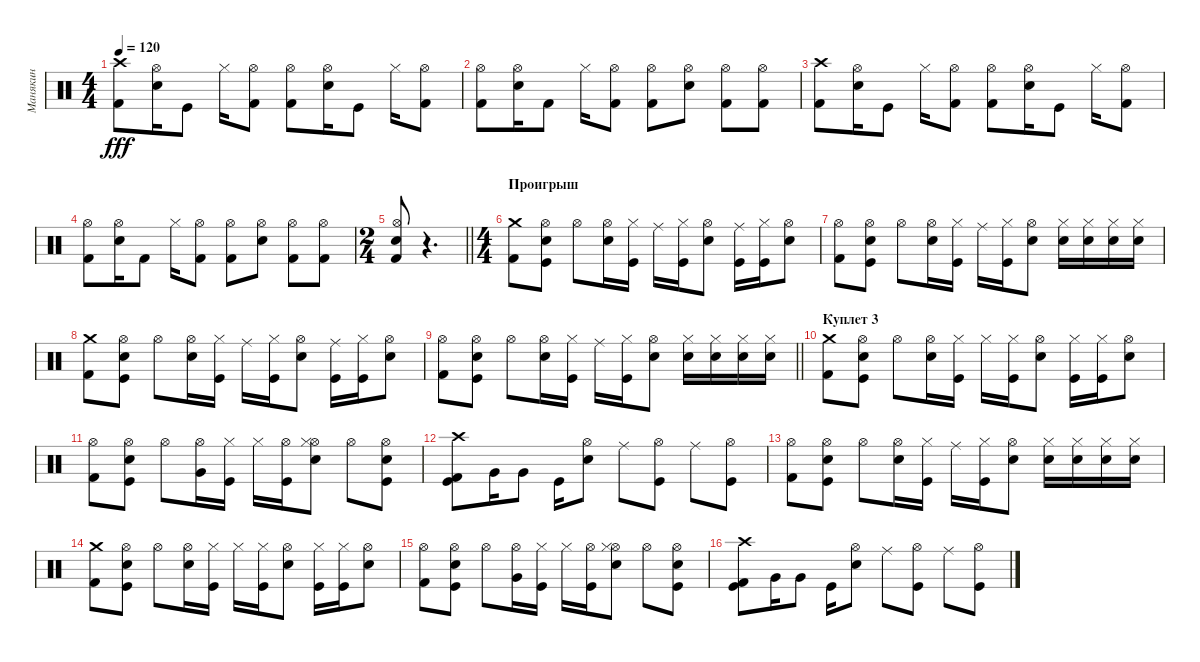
\track ("Манякин" "Манякин") {instrument percussion}
\staff {score}
\articulation defaults
\ts (4 4)
\tempo 120
\clef neutral
\ks c
("Crash high (hit)" "Kick (hit) 2").8{dy fff} ("Hi-Hat (open)" "Snare (hit) 2").16 "Kick (hit)".8 "Hi-Hat (closed)".16 ("Hi-Hat (open)" "Kick (hit) 2").8 ("Hi-Hat (open)" "Kick (hit) 2").8 ("Hi-Hat (open)" "Snare (hit) 2").16 "Kick (hit)".8 "Hi-Hat (closed)".16 ("Kick (hit) 2" "Hi-Hat (open)").8 |
("Hi-Hat (open)" "Kick (hit) 2").8 ("Hi-Hat (open)" "Snare (hit) 2").16 "Kick (hit) 2".8 "Hi-Hat (closed)".16 ("Hi-Hat (open)" "Kick (hit) 2").8 ("Kick (hit) 2" "Hi-Hat (open)").8 ("Hi-Hat (open)" "Snare (hit) 2").8 ("Hi-Hat (open)" "Kick (hit) 2").8 ("Hi-Hat (open)" "Kick (hit) 2").8 |
("Crash high (hit)" "Kick (hit) 2").8 ("Hi-Hat (open)" "Snare (hit) 2").16 "Kick (hit)".8 "Hi-Hat (closed)".16 ("Hi-Hat (open)" "Kick (hit) 2").8 ("Hi-Hat (open)" "Kick (hit) 2").8 ("Hi-Hat (open)" "Snare (hit) 2").16 "Kick (hit)".8 "Hi-Hat (closed)".16 ("Kick (hit) 2" "Hi-Hat (open)").8 |
("Hi-Hat (open)" "Kick (hit) 2").8 ("Hi-Hat (open)" "Snare (hit) 2").16 "Kick (hit) 2".8 "Hi-Hat (closed)".16 ("Hi-Hat (open)" "Kick (hit) 2").8 ("Kick (hit) 2" "Hi-Hat (open)").8 ("Hi-Hat (open)" "Snare (hit) 2").8 ("Hi-Hat (open)" "Kick (hit) 2").8 ("Hi-Hat (open)" "Kick (hit) 2").8 |
\ts (2 4)
\barLineRight lightlight
("Hi-Hat (open)" "Snare (hit) 2" "Kick (hit) 2").8 r.4{d} |
\ts (4 4)
\section ("" "Проигрыш")
("Crash medium (hit)" "Kick (hit) 2").8 ("Hi-Hat (open)" "Kick (hit)" "Snare (hit) 2").8 "Hi-Hat (open)".8 ("Snare (hit) 2" "Hi-Hat (open)").16 ("Kick (hit)" "Hi-Hat (closed)").16 "Ride (middle)".16 ("Kick (hit)" "Hi-Hat (closed)").16 ("Snare (hit) 2" "Hi-Hat (open)").8 ("Kick (hit)" "Ride (middle)").16 ("Kick (hit)" "Hi-Hat (closed)").16 ("Snare (hit) 2" "Hi-Hat (open)").8 |
("Hi-Hat (open)" "Kick (hit) 2").8 ("Hi-Hat (open)" "Snare (hit) 2" "Kick (hit)").8 "Hi-Hat (open)".8 ("Snare (hit) 2" "Hi-Hat (open)").16 ("Hi-Hat (closed)" "Kick (hit)").16 "Ride (middle)".16 ("Hi-Hat (closed)" "Kick (hit)").16 ("Hi-Hat (open)" "Snare (hit) 2").8 ("Hi-Hat (closed)" "Snare (hit) 2").16 ("Hi-Hat (closed)" "Snare (hit) 2").16 ("Hi-Hat (closed)" "Snare (hit) 2").16 ("Hi-Hat (closed)" "Snare (hit) 2").16 |
("Crash medium (hit)" "Kick (hit) 2").8 ("Hi-Hat (open)" "Kick (hit)" "Snare (hit) 2").8 "Hi-Hat (open)".8 ("Snare (hit) 2" "Hi-Hat (open)").16 ("Kick (hit)" "Hi-Hat (closed)").16 "Ride (middle)".16 ("Kick (hit)" "Hi-Hat (closed)").16 ("Snare (hit) 2" "Hi-Hat (open)").8 ("Kick (hit)" "Ride (middle)").16 ("Kick (hit)" "Hi-Hat (closed)").16 ("Snare (hit) 2" "Hi-Hat (open)").8 |
\barLineRight lightlight
("Hi-Hat (open)" "Kick (hit) 2").8 ("Hi-Hat (open)" "Snare (hit) 2" "Kick (hit)").8 "Hi-Hat (open)".8 ("Snare (hit) 2" "Hi-Hat (open)").16 ("Hi-Hat (closed)" "Kick (hit)").16 "Ride (middle)".16 ("Hi-Hat (closed)" "Kick (hit)").16 ("Hi-Hat (open)" "Snare (hit) 2").8 ("Hi-Hat (closed)" "Snare (hit) 2").16 ("Hi-Hat (closed)" "Snare (hit) 2").16 ("Hi-Hat (closed)" "Snare (hit) 2").16 ("Hi-Hat (closed)" "Snare (hit) 2").16 |
\section ("" "Куплет 3")
("Crash medium (hit)" "Kick (hit) 2").8 ("Hi-Hat (open)" "Snare (hit) 2" "Kick (hit)").8 "Hi-Hat (open)".8 ("Snare (hit) 2" "Hi-Hat (open)").16 ("Hi-Hat (closed)" "Kick (hit)").16 "Hi-Hat (closed)".16 ("Hi-Hat (closed)" "Kick (hit)").16 ("Hi-Hat (open)" "Snare (hit) 2").8 ("Hi-Hat (closed)" "Kick (hit)").16 ("Hi-Hat (closed)" "Kick (hit)").16 ("Hi-Hat (open)" "Snare (hit) 2").8 |
("Hi-Hat (open)" "Kick (hit) 2").8 ("Hi-Hat (open)" "Snare (hit) 2" "Kick (hit)").8 "Hi-Hat (open)".8 ("Hi-Hat (open)" "Very Low Tom (hit)").16 ("Hi-Hat (closed)" "Kick (hit)").16 "Hi-Hat (closed)".16 ("Hi-Hat (open)" "Kick (hit)").16 ("Hi-Hat (open)" "Hi-Hat (closed)" "Snare (hit) 2").8 "Hi-Hat (open)".8 ("Hi-Hat (open)" "Snare (hit) 2" "Kick (hit)").8 |
("Crash high (hit)" "Kick (hit)" "Kick (hit) 2").8 "Very Low Tom (hit)".16 "Very Low Tom (hit)".8 "Kick (hit)".16 ("Hi-Hat (open)" "Snare (hit) 2").8 "Ride (middle)".8 ("Kick (hit)" "Hi-Hat (open)").8 "Ride (middle)".8 ("Kick (hit)" "Hi-Hat (open)").8 |
("Hi-Hat (open)" "Kick (hit) 2").8 ("Hi-Hat (open)" "Snare (hit) 2" "Kick (hit)").8 "Hi-Hat (open)".8 ("Snare (hit) 2" "Hi-Hat (open)").16 ("Hi-Hat (closed)" "Kick (hit)").16 "Ride (middle)".16 ("Hi-Hat (closed)" "Kick (hit)").16 ("Hi-Hat (open)" "Snare (hit) 2").8 ("Hi-Hat (closed)" "Snare (hit) 2").16 ("Hi-Hat (closed)" "Snare (hit) 2").16 ("Hi-Hat (closed)" "Snare (hit) 2").16 ("Hi-Hat (closed)" "Snare (hit) 2").16 |
("Crash medium (hit)" "Kick (hit) 2").8 ("Hi-Hat (open)" "Snare (hit) 2" "Kick (hit)").8 "Hi-Hat (open)".8 ("Snare (hit) 2" "Hi-Hat (open)").16 ("Hi-Hat (closed)" "Kick (hit)").16 "Hi-Hat (closed)".16 ("Hi-Hat (closed)" "Kick (hit)").16 ("Hi-Hat (open)" "Snare (hit) 2").8 ("Hi-Hat (closed)" "Kick (hit)").16 ("Hi-Hat (closed)" "Kick (hit)").16 ("Hi-Hat (open)" "Snare (hit) 2").8 |
("Hi-Hat (open)" "Kick (hit) 2").8 ("Hi-Hat (open)" "Snare (hit) 2" "Kick (hit)").8 "Hi-Hat (open)".8 ("Hi-Hat (open)" "Very Low Tom (hit)").16 ("Hi-Hat (closed)" "Kick (hit)").16 "Hi-Hat (closed)".16 ("Hi-Hat (open)" "Kick (hit)").16 ("Hi-Hat (open)" "Hi-Hat (closed)" "Snare (hit) 2").8 "Hi-Hat (open)".8 ("Hi-Hat (open)" "Snare (hit) 2" "Kick (hit)").8 |
("Crash high (hit)" "Kick (hit)" "Kick (hit) 2").8 "Very Low Tom (hit)".16 "Very Low Tom (hit)".8 "Kick (hit)".16 ("Hi-Hat (open)" "Snare (hit) 2").8 "Ride (middle)".8 ("Kick (hit)" "Hi-Hat (open)").8 "Ride (middle)".8 ("Kick (hit)" "Hi-Hat (open)").8
